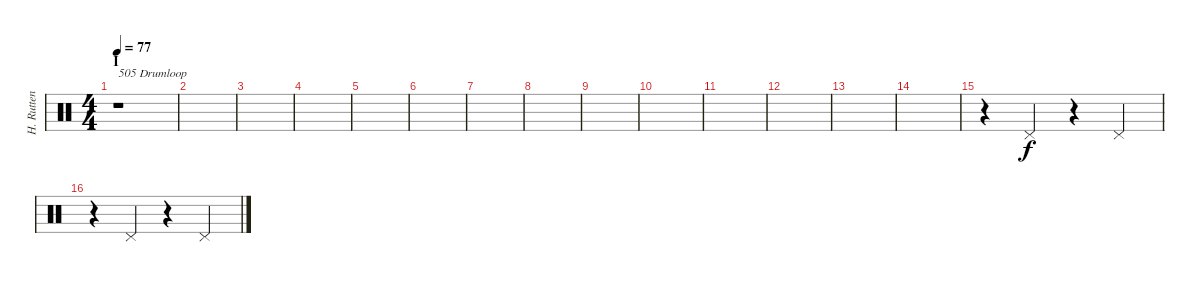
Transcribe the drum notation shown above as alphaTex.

\track ("H. Rutten" "H. Rutten") {instrument percussion}
\staff {score}
\articulation defaults
\ts (4 4)
\section ("" "I")
\tempo 77
\clef neutral
\ks c
r.1{txt "505 Drumloop" dy f} |
|
|
|
|
|
|
|
|
|
|
|
|
|
r.4 "Pedal Hi-Hat (hit)".4 r.4 "Pedal Hi-Hat (hit)".4 |
r.4 "Pedal Hi-Hat (hit)".4 r.4 "Pedal Hi-Hat (hit)".4
